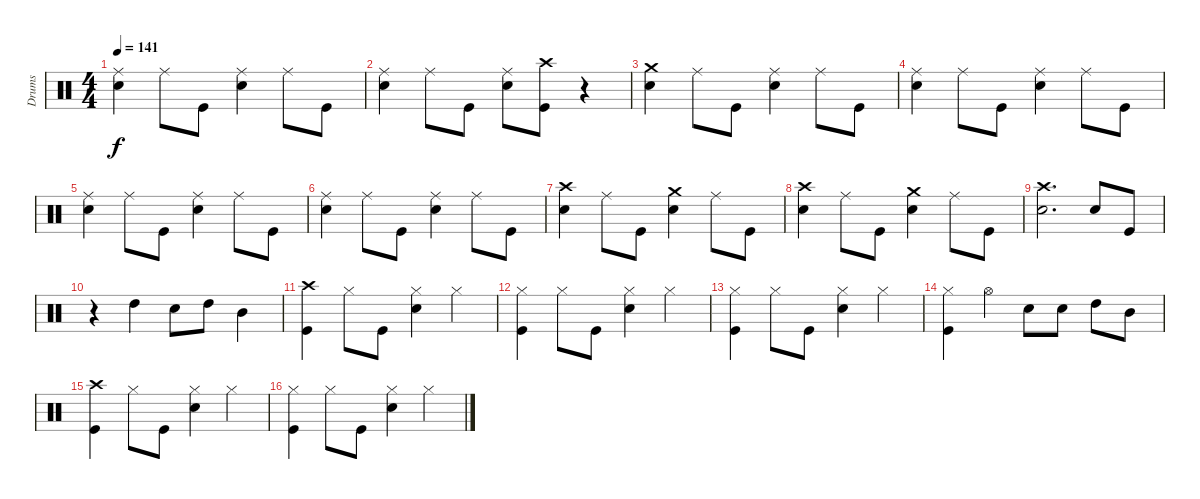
\track ("Drums" "Drums") {instrument percussion}
\staff {score}
\articulation defaults
\ts (4 4)
\tempo 141
\clef neutral
\ks c
("Ride (middle)" "Snare (hit) 2").4{dy f} "Ride (middle)".8 "Kick (hit)".8 ("Ride (middle)" "Snare (hit) 2").4 "Ride (middle)".8 "Kick (hit)".8 |
("Ride (middle)" "Snare (hit) 2").4 "Ride (middle)".8 "Kick (hit)".8 ("Ride (middle)" "Snare (hit) 2").8 ("Crash high (hit)" "Kick (hit)").8 r.4 |
("Crash medium (hit)" "Snare (hit) 2").4 "Ride (middle)".8 "Kick (hit)".8 ("Ride (middle)" "Snare (hit) 2").4 "Ride (middle)".8 "Kick (hit)".8 |
("Ride (middle)" "Snare (hit) 2").4 "Ride (middle)".8 "Kick (hit)".8 ("Ride (middle)" "Snare (hit) 2").4 "Ride (middle)".8 "Kick (hit)".8 |
("Ride (middle)" "Snare (hit) 2").4 "Ride (middle)".8 "Kick (hit)".8 ("Ride (middle)" "Snare (hit) 2").4 "Ride (middle)".8 "Kick (hit)".8 |
("Ride (middle)" "Snare (hit) 2").4 "Ride (middle)".8 "Kick (hit)".8 ("Ride (middle)" "Snare (hit) 2").4 "Ride (middle)".8 "Kick (hit)".8 |
("Crash high (hit)" "Snare (hit) 2").4 "Ride (middle)".8 "Kick (hit)".8 ("Crash medium (hit)" "Snare (hit) 2").4 "Ride (middle)".8 "Kick (hit)".8 |
("Crash high (hit)" "Snare (hit) 2").4 "Ride (middle)".8 "Kick (hit)".8 ("Crash medium (hit)" "Snare (hit) 2").4 "Ride (middle)".8 "Kick (hit)".8 |
("Crash high (hit)" "Snare (hit) 2").2{d} "Snare (hit) 2".8 "Kick (hit)".8 |
r.4 "High Tom (hit)".4 "Snare (hit) 2".8 "High Tom (hit)".8 "Mid Tom (hit)".4 |
("Crash high (hit)" "Kick (hit)").4 "Hi-Hat (closed)".8 "Kick (hit)".8 ("Hi-Hat (closed)" "Snare (hit) 2").4 "Hi-Hat (closed)".4 |
("Hi-Hat (closed)" "Kick (hit)").4 "Hi-Hat (closed)".8 "Kick (hit)".8 ("Hi-Hat (closed)" "Snare (hit) 2").4 "Hi-Hat (closed)".4 |
("Hi-Hat (closed)" "Kick (hit)").4 "Hi-Hat (closed)".8 "Kick (hit)".8 ("Hi-Hat (closed)" "Snare (hit) 2").4 "Hi-Hat (closed)".4 |
("Hi-Hat (closed)" "Kick (hit)").4 "Hi-Hat (open)".4 "Snare (hit) 2".8 "Snare (hit) 2".8 "High Tom (hit)".8 "Mid Tom (hit)".8 |
("Crash high (hit)" "Kick (hit)").4 "Hi-Hat (closed)".8 "Kick (hit)".8 ("Hi-Hat (closed)" "Snare (hit) 2").4 "Hi-Hat (closed)".4 |
("Hi-Hat (closed)" "Kick (hit)").4 "Hi-Hat (closed)".8 "Kick (hit)".8 ("Hi-Hat (closed)" "Snare (hit) 2").4 "Hi-Hat (closed)".4
